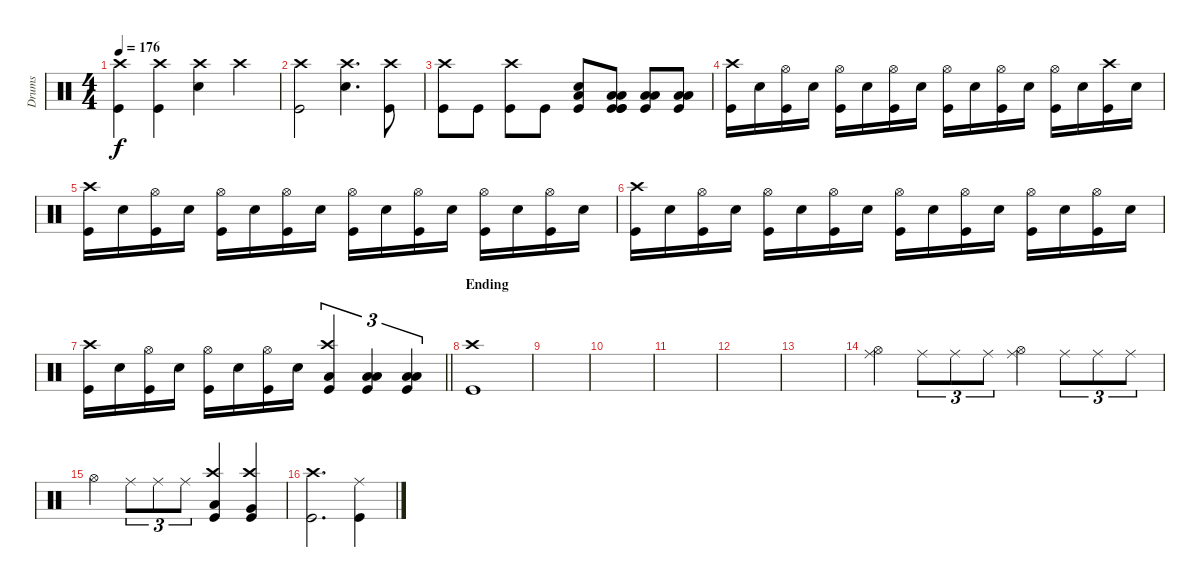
\track ("Drums" "Drums") {instrument percussion}
\staff {score}
\articulation defaults
\ts (4 4)
\tempo 176
\clef neutral
\ks c
("Kick (hit)" "Crash high (hit)").4{dy f} ("Kick (hit)" "Crash high (hit)").4 ("Snare (hit) 2" "Crash high (hit)").4 "Crash high (hit)".4 |
("Kick (hit)" "Crash high (hit)").2 ("Snare (hit) 2" "Crash high (hit)").4{d} ("Kick (hit)" "Crash high (hit)").8 |
("Kick (hit)" "Crash high (hit)").8 "Kick (hit)".8 ("Kick (hit)" "Crash high (hit)").8 "Kick (hit)".8 ("Snare (hit) 2" "Low Floor Tom (hit)" "Kick (hit)").8 ("Low Tom (hit)" "Low Floor Tom (hit)" "Kick (hit)" "Kick (hit)" "Kick (hit)").8 ("Low Tom (hit)" "Low Floor Tom (hit)" "Kick (hit)").8 ("Low Tom (hit)" "Low Floor Tom (hit)" "Kick (hit)").8 |
("Kick (hit)" "Crash high (hit)").16 "Snare (hit) 2".16 ("Kick (hit)" "Hi-Hat (open)").16 "Snare (hit) 2".16 ("Kick (hit)" "Hi-Hat (open)").16 "Snare (hit) 2".16 ("Kick (hit)" "Hi-Hat (open)").16 "Snare (hit) 2".16 ("Kick (hit)" "Hi-Hat (open)").16 "Snare (hit) 2".16 ("Kick (hit)" "Hi-Hat (open)").16 "Snare (hit) 2".16 ("Kick (hit)" "Hi-Hat (open)").16 "Snare (hit) 2".16 ("Kick (hit)" "Crash high (hit)").16 "Snare (hit) 2".16 |
("Kick (hit)" "Crash high (hit)").16 "Snare (hit) 2".16 ("Kick (hit)" "Hi-Hat (open)").16 "Snare (hit) 2".16 ("Kick (hit)" "Hi-Hat (open)").16 "Snare (hit) 2".16 ("Kick (hit)" "Hi-Hat (open)").16 "Snare (hit) 2".16 ("Kick (hit)" "Hi-Hat (open)").16 "Snare (hit) 2".16 ("Kick (hit)" "Hi-Hat (open)").16 "Snare (hit) 2".16 ("Kick (hit)" "Hi-Hat (open)").16 "Snare (hit) 2".16 ("Kick (hit)" "Hi-Hat (open)").16 "Snare (hit) 2".16 |
("Kick (hit)" "Crash high (hit)").16 "Snare (hit) 2".16 ("Kick (hit)" "Hi-Hat (open)").16 "Snare (hit) 2".16 ("Kick (hit)" "Hi-Hat (open)").16 "Snare (hit) 2".16 ("Kick (hit)" "Hi-Hat (open)").16 "Snare (hit) 2".16 ("Kick (hit)" "Hi-Hat (open)").16 "Snare (hit) 2".16 ("Kick (hit)" "Hi-Hat (open)").16 "Snare (hit) 2".16 ("Kick (hit)" "Hi-Hat (open)").16 "Snare (hit) 2".16 ("Kick (hit)" "Hi-Hat (open)").16 "Snare (hit) 2".16 |
\barLineRight lightlight
("Kick (hit)" "Crash high (hit)").16 "Snare (hit) 2".16 ("Kick (hit)" "Hi-Hat (open)").16 "Snare (hit) 2".16 ("Kick (hit)" "Hi-Hat (open)").16 "Snare (hit) 2".16 ("Kick (hit)" "Hi-Hat (open)").16 "Snare (hit) 2".16 ("Kick (hit)" "Low Tom (hit)" "Crash high (hit)").4{tu (3 2)} ("Kick (hit)" "Low Tom (hit)" "Low Floor Tom (hit)").4{tu (3 2)} ("Kick (hit)" "Low Tom (hit)" "Low Floor Tom (hit)").4{tu (3 2)} |
\section ("" "Ending")
("Kick (hit)" "Crash high (hit)").1 |
|
|
|
|
|
("Ride (middle)" "Hi-Hat (open)").4 "Ride (middle)".8{tu (3 2)} "Ride (middle)".8{tu (3 2)} "Ride (middle)".8{tu (3 2)} ("Ride (middle)" "Hi-Hat (open)").4 "Ride (middle)".8{tu (3 2)} "Ride (middle)".8{tu (3 2)} "Ride (middle)".8{tu (3 2)} |
"Hi-Hat (open)".4 "Ride (middle)".8{tu (3 2)} "Ride (middle)".8{tu (3 2)} "Ride (middle)".8{tu (3 2)} ("Kick (hit)" "Crash high (hit)" "Low Tom (hit)").4 ("Kick (hit)" "Crash high (hit)" "Very Low Tom (hit)").4 |
("Kick (hit)" "Crash high (hit)").2{d} ("Kick (hit)" "Ride (middle)").4
